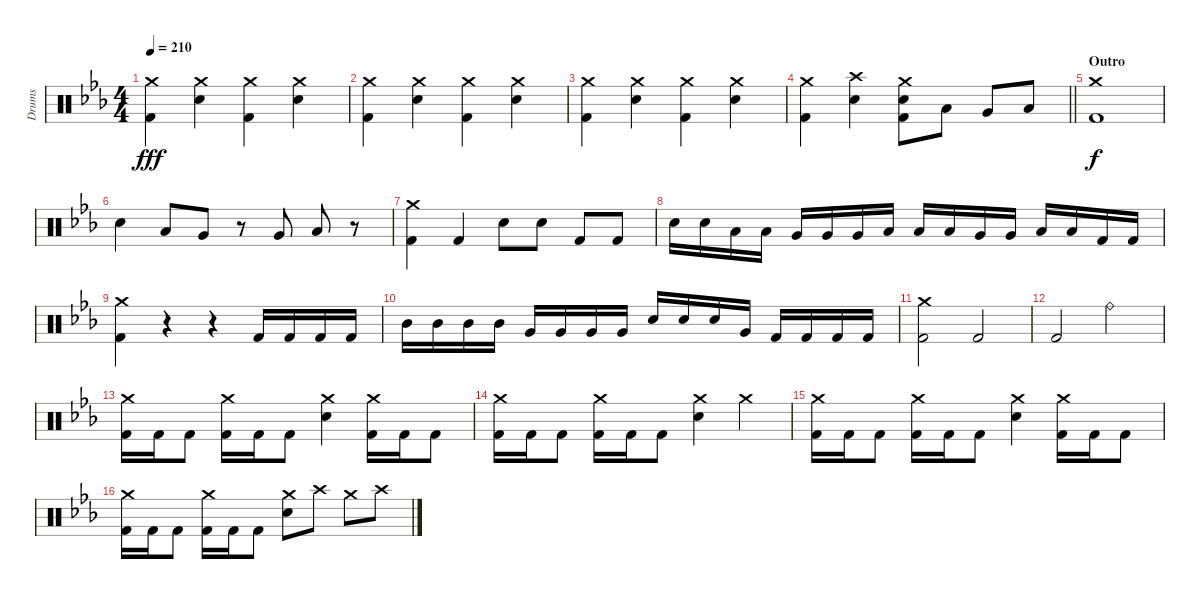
\track ("Drums" "Drums") {instrument percussion}
\staff {score}
\articulation defaults
\ts (4 4)
\tempo 210
\clef neutral
\ks cminor
("Crash medium (hit)" "Kick (hit) 2").4{dy fff} ("Crash medium (hit)" "Electric Snare (hit)").4 ("Crash medium (hit)" "Kick (hit) 2").4 ("Crash medium (hit)" "Electric Snare (hit)").4 |
("Crash medium (hit)" "Kick (hit) 2").4 ("Crash medium (hit)" "Electric Snare (hit)").4 ("Crash medium (hit)" "Kick (hit) 2").4 ("Crash medium (hit)" "Electric Snare (hit)").4 |
("Crash medium (hit)" "Kick (hit) 2").4 ("Crash medium (hit)" "Electric Snare (hit)").4 ("Crash medium (hit)" "Kick (hit) 2").4 ("Crash medium (hit)" "Electric Snare (hit)").4 |
\barLineRight lightlight
("Crash medium (hit)" "Kick (hit) 2").4 ("Crash high (hit)" "Electric Snare (hit)").4 ("Crash medium (hit)" "Electric Snare (hit)" "Kick (hit) 2").8 "Low Tom (hit)".8 "Very Low Tom (hit)".8 "Low Floor Tom (hit)".8 |
\section ("" "Outro")
("Crash medium (hit)" "Kick (hit) 2").1{dy f} |
"Electric Snare (hit)".4 "Low Tom (hit)".8 "Very Low Tom (hit)".8 r.8 "Very Low Tom (hit)".8 "Low Floor Tom (hit)".8 r.8 |
("Crash medium (hit)" "Kick (hit) 2").4 "Kick (hit) 2".4 "Electric Snare (hit)".8 "Electric Snare (hit)".8 "Kick (hit) 2".8 "Kick (hit) 2".8 |
"Electric Snare (hit)".16 "Electric Snare (hit)".16 "Low Tom (hit)".16 "Low Tom (hit)".16 "Very Low Tom (hit)".16 "Very Low Tom (hit)".16 "Very Low Tom (hit)".16 "Low Tom (hit)".16 "Low Tom (hit)".16 "Low Tom (hit)".16 "Very Low Tom (hit)".16 "Very Low Tom (hit)".16 "Low Floor Tom (hit)".16 "Low Floor Tom (hit)".16 "Kick (hit) 2".16 "Kick (hit) 2".16 |
("Crash medium (hit)" "Kick (hit) 2").4 r.4 r.4 "Kick (hit) 2".16 "Kick (hit) 2".16 "Kick (hit) 2".16 "Kick (hit) 2".16 |
"Mid Tom (hit)".16 "Mid Tom (hit)".16 "Mid Tom (hit)".16 "Mid Tom (hit)".16 "Very Low Tom (hit)".16 "Very Low Tom (hit)".16 "Very Low Tom (hit)".16 "Very Low Tom (hit)".16 "Electric Snare (hit)".16 "Electric Snare (hit)".16 "Electric Snare (hit)".16 "Very Low Tom (hit)".16 "Kick (hit) 2".16 "Kick (hit) 2".16 "Kick (hit) 2".16 "Kick (hit) 2".16 |
("Crash medium (hit)" "Kick (hit) 2").2 "Kick (hit) 2".2 |
"Kick (hit) 2".2 "Ride (bell)".2 |
("Crash medium (hit)" "Kick (hit) 2").16 "Kick (hit) 2".16 "Kick (hit) 2".8 ("Crash medium (hit)" "Kick (hit) 2").16 "Kick (hit) 2".16 "Kick (hit) 2".8 ("Crash medium (hit)" "Electric Snare (hit)").4 ("Crash medium (hit)" "Kick (hit) 2").16 "Kick (hit) 2".16 "Kick (hit) 2".8 |
("Crash medium (hit)" "Kick (hit) 2").16 "Kick (hit) 2".16 "Kick (hit) 2".8 ("Crash medium (hit)" "Kick (hit) 2").16 "Kick (hit) 2".16 "Kick (hit) 2".8 ("Crash medium (hit)" "Electric Snare (hit)").4 "Crash medium (hit)".4 |
("Crash medium (hit)" "Kick (hit) 2").16 "Kick (hit) 2".16 "Kick (hit) 2".8 ("Crash medium (hit)" "Kick (hit) 2").16 "Kick (hit) 2".16 "Kick (hit) 2".8 ("Crash medium (hit)" "Electric Snare (hit)").4 ("Crash medium (hit)" "Kick (hit) 2").16 "Kick (hit) 2".16 "Kick (hit) 2".8 |
("Crash medium (hit)" "Kick (hit) 2").16 "Kick (hit) 2".16 "Kick (hit) 2".8 ("Crash medium (hit)" "Kick (hit) 2").16 "Kick (hit) 2".16 "Kick (hit) 2".8 ("Crash medium (hit)" "Electric Snare (hit)").8 "Crash high (hit)".8 "Crash medium (hit)".8 "Crash high (hit)".8
